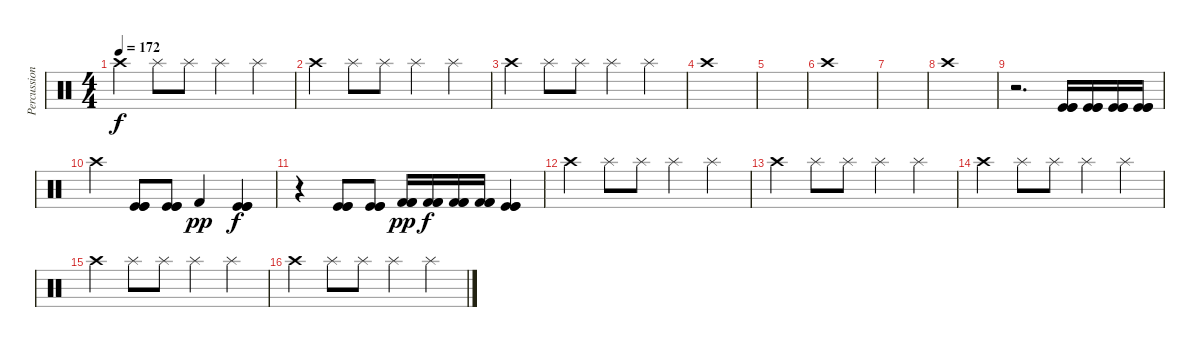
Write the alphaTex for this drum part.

\track ("Percussion" "Percussion") {instrument percussion}
\staff {score}
\articulation defaults
\ts (4 4)
\tempo 172
\clef neutral
\ks c "Crash high (hit)".4{dy f} "Splash (hit)".8 "Splash (hit)".8 "Splash (hit)".4 "Splash (hit)".4
|
"Crash high (hit)".4 "Splash (hit)".8 "Splash (hit)".8 "Splash (hit)".4 "Splash (hit)".4 |
"Crash high (hit)".4 "Splash (hit)".8 "Splash (hit)".8 "Splash (hit)".4 "Splash (hit)".4 |
"Crash high (hit)".1 |
|
"Crash high (hit)".1 |
|
"Crash high (hit)".1 |
r.2{d} ("Kick (hit)" "Kick (hit)" "Kick (hit)").16 ("Kick (hit)" "Kick (hit)" "Kick (hit)").16 ("Kick (hit)" "Kick (hit)" "Kick (hit)").16 ("Kick (hit)" "Kick (hit)" "Kick (hit)").16 |
"Crash high (hit)".4 ("Kick (hit)" "Kick (hit)" "Kick (hit)").8 ("Kick (hit)" "Kick (hit)" "Kick (hit)").8 "Kick (hit) 2".4{dy pp} ("Kick (hit)" "Kick (hit)" "Kick (hit)").4{dy f} |
r.4 ("Kick (hit)" "Kick (hit)" "Kick (hit)").8 ("Kick (hit)" "Kick (hit)" "Kick (hit)").8 ("Kick (hit) 2" "Kick (hit) 2" "Kick (hit) 2").16{dy pp} ("Kick (hit) 2" "Kick (hit) 2" "Kick (hit) 2").16{dy f} ("Kick (hit) 2" "Kick (hit) 2" "Kick (hit) 2").16 ("Kick (hit) 2" "Kick (hit) 2" "Kick (hit) 2").16 ("Kick (hit)" "Kick (hit)" "Kick (hit)").4 |
"Crash high (hit)".4 "Splash (hit)".8 "Splash (hit)".8 "Splash (hit)".4 "Splash (hit)".4 |
"Crash high (hit)".4 "Splash (hit)".8 "Splash (hit)".8 "Splash (hit)".4 "Splash (hit)".4 |
"Crash high (hit)".4 "Splash (hit)".8 "Splash (hit)".8 "Splash (hit)".4 "Splash (hit)".4 |
"Crash high (hit)".4 "Splash (hit)".8 "Splash (hit)".8 "Splash (hit)".4 "Splash (hit)".4 |
"Crash high (hit)".4 "Splash (hit)".8 "Splash (hit)".8 "Splash (hit)".4 "Splash (hit)".4
